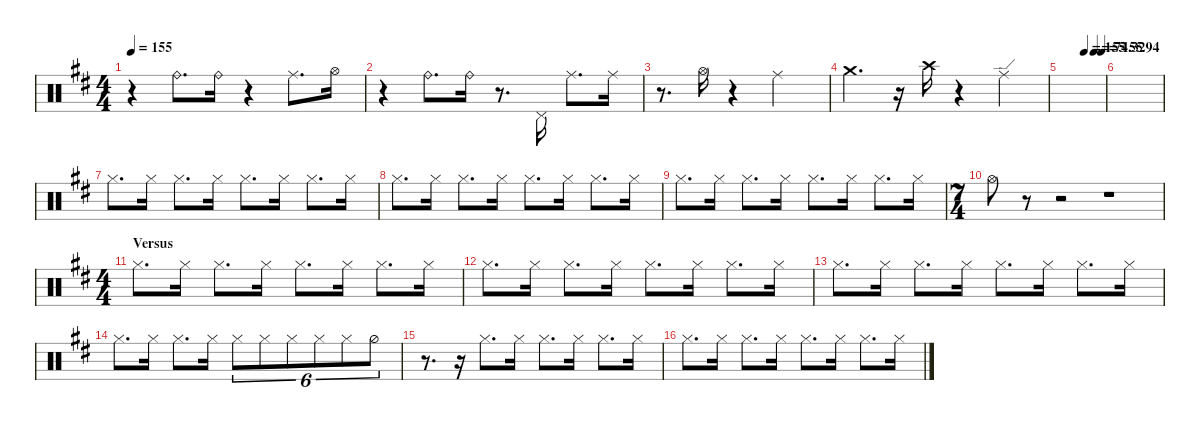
\hideDynamics
\bracketExtendMode nobrackets
\singleTrackTrackNamePolicy hidden
\multiTrackTrackNamePolicy hidden
\otherSystemsTrackNameOrientation horizontal
\track ("Perc" "Drums") {instrument percussion}
\staff {score}
\articulation defaults
\ts (4 4)
\tempo 155
\clef neutral
\ks d
r.4{dy mf beam Down} "Ride (bell)"{acc forcenatural}.8{d dy pp beam Down} "Ride (bell)"{acc forcenatural}.16{beam Down} r.4{beam Down} "Ride (middle)"{acc forcenatural}.8{d dy mf beam Down} "Hi-Hat (open)"{acc forcenatural}.16{dy mp beam Down} |
r.4{beam Down} "Ride (bell)"{acc forcenatural}.8{d dy pp beam Down} "Ride (bell)"{acc forcenatural}.16{beam Down} r.8{d beam Down} "Pedal Hi-Hat (hit)"{acc forcenatural}.16{dy p beam Up} "Ride (middle)"{acc forcenatural}.8{d dy mf beam Down} "Ride (middle)"{acc forcenatural}.16{beam Down} |
r.8{d beam Down} "Hi-Hat (open)"{acc forcenatural}.16{dy mp beam Down} r.4{beam Down} "Ride (middle)"{acc forcenatural}.2{beam Down} |
"Crash medium (hit)"{acc forcenatural}.4{d dy mf beam Down} r.16{beam Down} "Crash high (hit)"{acc forcenatural}.16{dy mp beam Down} r.4{beam Down} "Ride (edge)"{acc forcenatural}.4{beam Down} |
\tempo (155 0.53125)
\tempo (74.3294 0.75)
\tempo (155 0.925)
|
|
"Hi-Hat (closed)"{acc forcenatural}.8{d dy mf beam Down} "Hi-Hat (closed)"{acc forcenatural}.16{dy mp beam Down} "Hi-Hat (closed)"{acc forcenatural}.8{d dy mf beam Down} "Hi-Hat (closed)"{acc forcenatural}.16{dy mp beam Down} "Hi-Hat (closed)"{acc forcenatural}.8{d dy mf beam Down} "Hi-Hat (closed)"{acc forcenatural}.16{dy mp beam Down} "Hi-Hat (closed)"{acc forcenatural}.8{d dy mf beam Down} "Hi-Hat (closed)"{acc forcenatural}.16{dy mp beam Down} |
"Hi-Hat (closed)"{acc forcenatural}.8{d dy mf beam Down} "Hi-Hat (closed)"{acc forcenatural}.16{dy mp beam Down} "Hi-Hat (closed)"{acc forcenatural}.8{d dy mf beam Down} "Hi-Hat (closed)"{acc forcenatural}.16{dy mp beam Down} "Hi-Hat (closed)"{acc forcenatural}.8{d dy mf beam Down} "Hi-Hat (closed)"{acc forcenatural}.16{dy mp beam Down} "Hi-Hat (closed)"{acc forcenatural}.8{d dy mf beam Down} "Hi-Hat (closed)"{acc forcenatural}.16{dy mp beam Down} |
"Hi-Hat (closed)"{acc forcenatural}.8{d dy mf beam Down} "Hi-Hat (closed)"{acc forcenatural}.16{dy mp beam Down} "Hi-Hat (closed)"{acc forcenatural}.8{d dy mf beam Down} "Hi-Hat (closed)"{acc forcenatural}.16{dy mp beam Down} "Hi-Hat (closed)"{acc forcenatural}.8{d dy mf beam Down} "Hi-Hat (closed)"{acc forcenatural}.16{dy mp beam Down} "Hi-Hat (closed)"{acc forcenatural}.8{d dy mf beam Down} "Hi-Hat (closed)"{acc forcenatural}.16{dy mp beam Down} |
\ts (7 4)
"Hi-Hat (open)"{acc forcenatural}.8{beam Down} r.8{beam Down} r.2{beam Down} r.1{beam Down} |
\ts (4 4)
\section ("" "Versus")
"Hi-Hat (closed)"{acc forcenatural}.8{d dy p beam Down} "Hi-Hat (closed)"{acc forcenatural}.16{beam Down} "Hi-Hat (closed)"{acc forcenatural}.8{d beam Down} "Hi-Hat (closed)"{acc forcenatural}.16{dy mp beam Down} "Hi-Hat (closed)"{acc forcenatural}.8{d dy p beam Down} "Hi-Hat (closed)"{acc forcenatural}.16{beam Down} "Hi-Hat (closed)"{acc forcenatural}.8{d beam Down} "Hi-Hat (closed)"{acc forcenatural}.16{beam Down} |
"Hi-Hat (closed)"{acc forcenatural}.8{d dy mp beam Down} "Hi-Hat (closed)"{acc forcenatural}.16{dy p beam Down} "Hi-Hat (closed)"{acc forcenatural}.8{d beam Down} "Hi-Hat (closed)"{acc forcenatural}.16{dy mf beam Down} "Hi-Hat (closed)"{acc forcenatural}.8{d dy p beam Down} "Hi-Hat (closed)"{acc forcenatural}.16{beam Down} "Hi-Hat (closed)"{acc forcenatural}.8{d beam Down} "Hi-Hat (closed)"{acc forcenatural}.16{beam Down} |
"Hi-Hat (closed)"{acc forcenatural}.8{d beam Down} "Hi-Hat (closed)"{acc forcenatural}.16{beam Down} "Hi-Hat (closed)"{acc forcenatural}.8{d beam Down} "Hi-Hat (closed)"{acc forcenatural}.16{dy mp beam Down} "Hi-Hat (closed)"{acc forcenatural}.8{d dy p beam Down} "Hi-Hat (closed)"{acc forcenatural}.16{beam Down} "Hi-Hat (closed)"{acc forcenatural}.8{d beam Down} "Hi-Hat (closed)"{acc forcenatural}.16{beam Down} |
"Hi-Hat (closed)"{acc forcenatural}.8{d dy mp beam Down} "Hi-Hat (closed)"{acc forcenatural}.16{dy p beam Down} "Hi-Hat (closed)"{acc forcenatural}.8{d beam Down} "Hi-Hat (closed)"{acc forcenatural}.16{dy mf beam Down} "Hi-Hat (closed)"{acc forcenatural}.8{tu (6 4) dy mp beam Down} "Hi-Hat (closed)"{acc forcenatural}.8{tu (6 4) dy p beam Down} "Hi-Hat (closed)"{acc forcenatural}.8{tu (6 4) beam Down} "Hi-Hat (closed)"{acc forcenatural}.8{tu (6 4) beam Down} "Hi-Hat (closed)"{acc forcenatural}.8{tu (6 4) beam Down} "Hi-Hat (half)"{acc forcenatural}.8{tu (6 4) beam Down} |
r.8{d beam Down} r.16{beam Down} "Hi-Hat (closed)"{acc forcenatural}.8{d beam Down} "Hi-Hat (closed)"{acc forcenatural}.16{dy mp beam Down} "Hi-Hat (closed)"{acc forcenatural}.8{d dy p beam Down} "Hi-Hat (closed)"{acc forcenatural}.16{beam Down} "Hi-Hat (closed)"{acc forcenatural}.8{d beam Down} "Hi-Hat (closed)"{acc forcenatural}.16{beam Down} |
"Hi-Hat (closed)"{acc forcenatural}.8{d dy mp beam Down} "Hi-Hat (closed)"{acc forcenatural}.16{dy p beam Down} "Hi-Hat (closed)"{acc forcenatural}.8{d beam Down} "Hi-Hat (closed)"{acc forcenatural}.16{dy mf beam Down} "Hi-Hat (closed)"{acc forcenatural}.8{d dy p beam Down} "Hi-Hat (closed)"{acc forcenatural}.16{beam Down} "Hi-Hat (closed)"{acc forcenatural}.8{d beam Down} "Hi-Hat (closed)"{acc forcenatural}.16{beam Down}
